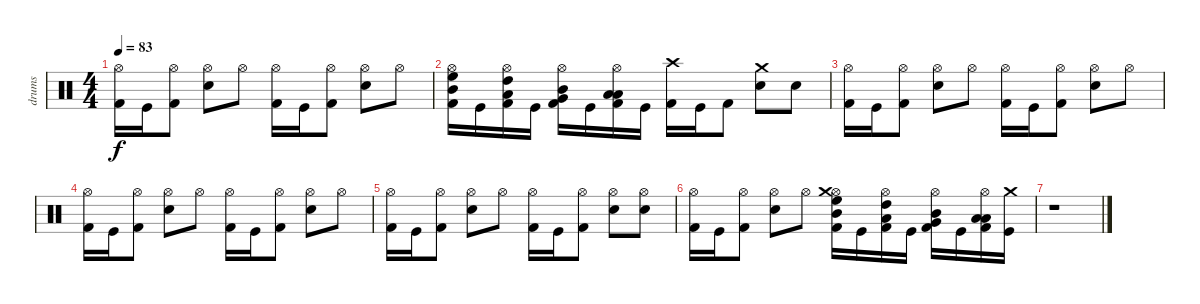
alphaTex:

\track ("drums" "drums") {instrument percussion}
\staff {score}
\articulation defaults
\ts (4 4)
\tempo 83
\clef neutral
\ks c
("Hi-Hat (open)" "Kick (hit) 2").16{dy f} "Kick (hit)".16 ("Kick (hit) 2" "Hi-Hat (open)").8 ("Electric Snare (hit)" "Hi-Hat (open)").8 "Hi-Hat (open)".8 ("Kick (hit) 2" "Hi-Hat (open)").16 "Kick (hit)".16 ("Kick (hit) 2" "Hi-Hat (open)").8 ("Electric Snare (hit)" "Hi-Hat (open)").8 "Hi-Hat (open)".8 |
("Kick (hit) 2" "Mid Tom (hit)" "High Floor Tom (hit)" "Hi-Hat (open)").16 "Kick (hit)".16 ("Kick (hit) 2" "Low Tom (hit)" "High Tom (hit)" "Hi-Hat (open)").16 "Kick (hit)".16 ("Kick (hit) 2" "Very Low Tom (hit)" "Mid Tom (hit)" "Hi-Hat (open)").16 "Kick (hit)".16 ("Kick (hit) 2" "Low Floor Tom (hit)" "Low Tom (hit)" "Hi-Hat (open)").16 "Kick (hit)".16 ("Kick (hit) 2" "Crash high (hit)").16 "Kick (hit)".16 "Kick (hit) 2".8 ("Electric Snare (hit)" "Crash medium (hit)").8 "Snare (hit) 2".8 |
("Hi-Hat (open)" "Kick (hit) 2").16 "Kick (hit)".16 ("Kick (hit) 2" "Hi-Hat (open)").8 ("Electric Snare (hit)" "Hi-Hat (open)").8 "Hi-Hat (open)".8 ("Kick (hit) 2" "Hi-Hat (open)").16 "Kick (hit)".16 ("Kick (hit) 2" "Hi-Hat (open)").8 ("Electric Snare (hit)" "Hi-Hat (open)").8 "Hi-Hat (open)".8 |
("Hi-Hat (open)" "Kick (hit) 2").16 "Kick (hit)".16 ("Kick (hit) 2" "Hi-Hat (open)").8 ("Electric Snare (hit)" "Hi-Hat (open)").8 "Hi-Hat (open)".8 ("Kick (hit) 2" "Hi-Hat (open)").16 "Kick (hit)".16 ("Kick (hit) 2" "Hi-Hat (open)").8 ("Electric Snare (hit)" "Hi-Hat (open)").8 "Hi-Hat (open)".8 |
("Kick (hit) 2" "Hi-Hat (open)").16 "Kick (hit)".16 ("Kick (hit) 2" "Hi-Hat (open)").8 ("Electric Snare (hit)" "Hi-Hat (open)").8 "Hi-Hat (open)".8 ("Kick (hit) 2" "Hi-Hat (open)").16 "Kick (hit)".16 ("Kick (hit) 2" "Hi-Hat (open)").8 ("Electric Snare (hit)" "Hi-Hat (open)").8 ("Snare (hit) 2" "Hi-Hat (open)").8 |
("Hi-Hat (open)" "Kick (hit) 2").16 "Kick (hit)".16 ("Kick (hit) 2" "Hi-Hat (open)").8 ("Electric Snare (hit)" "Hi-Hat (open)").8 "Hi-Hat (open)".8 ("Hi-Hat (open)" "High Floor Tom (hit)" "Mid Tom (hit)" "Kick (hit) 2" "Crash medium (hit)").16 "Kick (hit)".16 ("Kick (hit) 2" "Low Tom (hit)" "High Tom (hit)" "Hi-Hat (open)").16 "Kick (hit)".16 ("Kick (hit) 2" "Very Low Tom (hit)" "Mid Tom (hit)" "Hi-Hat (open)").16 "Kick (hit)".16 ("Kick (hit) 2" "Low Floor Tom (hit)" "Low Tom (hit)" "Hi-Hat (open)").16 ("Kick (hit)" "Crash medium (hit)").16 |
r.1
